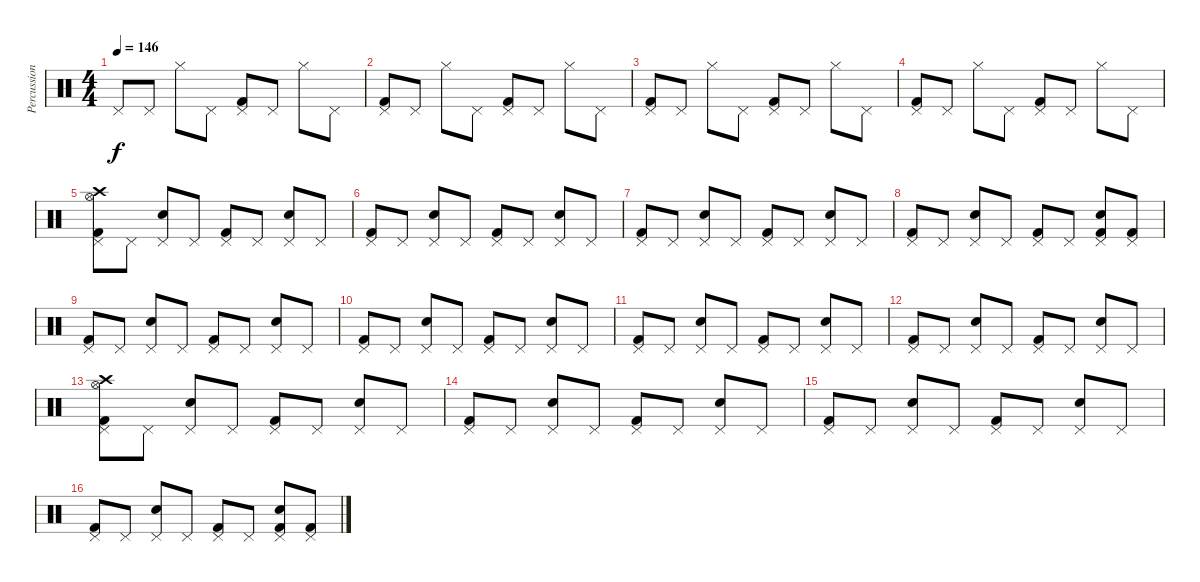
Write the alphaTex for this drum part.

\track ("Percussion" "Percussion") {instrument percussion}
\staff {score}
\articulation defaults
\ts (4 4)
\tempo 146
\clef neutral
\ks c "Pedal Hi-Hat (hit)".8{dy f} "Pedal Hi-Hat (hit)".8 "Hi-Hat (closed)".8 "Pedal Hi-Hat (hit)".8
("Pedal Hi-Hat (hit)" "Kick (hit) 2").8 "Pedal Hi-Hat (hit)".8 "Hi-Hat (closed)".8 "Pedal Hi-Hat (hit)".8 |
("Pedal Hi-Hat (hit)" "Kick (hit) 2").8 "Pedal Hi-Hat (hit)".8 "Hi-Hat (closed)".8 "Pedal Hi-Hat (hit)".8 ("Pedal Hi-Hat (hit)" "Kick (hit) 2").8 "Pedal Hi-Hat (hit)".8 "Hi-Hat (closed)".8 "Pedal Hi-Hat (hit)".8 |
("Pedal Hi-Hat (hit)" "Kick (hit) 2").8 "Pedal Hi-Hat (hit)".8 "Hi-Hat (closed)".8 "Pedal Hi-Hat (hit)".8 ("Pedal Hi-Hat (hit)" "Kick (hit) 2").8 "Pedal Hi-Hat (hit)".8 "Hi-Hat (closed)".8 "Pedal Hi-Hat (hit)".8 |
("Pedal Hi-Hat (hit)" "Kick (hit) 2").8 "Pedal Hi-Hat (hit)".8 "Hi-Hat (closed)".8 "Pedal Hi-Hat (hit)".8 ("Pedal Hi-Hat (hit)" "Kick (hit) 2").8 "Pedal Hi-Hat (hit)".8 "Hi-Hat (closed)".8 "Pedal Hi-Hat (hit)".8 |
("Kick (hit) 2" "Pedal Hi-Hat (hit)" "Crash high (hit)" "Hi-Hat (open)").8 "Pedal Hi-Hat (hit)".8 ("Electric Snare (hit)" "Pedal Hi-Hat (hit)").8 "Pedal Hi-Hat (hit)".8 ("Kick (hit) 2" "Pedal Hi-Hat (hit)").8 "Pedal Hi-Hat (hit)".8 ("Electric Snare (hit)" "Pedal Hi-Hat (hit)").8 "Pedal Hi-Hat (hit)".8 |
("Kick (hit) 2" "Pedal Hi-Hat (hit)").8 "Pedal Hi-Hat (hit)".8 ("Electric Snare (hit)" "Pedal Hi-Hat (hit)").8 "Pedal Hi-Hat (hit)".8 ("Kick (hit) 2" "Pedal Hi-Hat (hit)").8 "Pedal Hi-Hat (hit)".8 ("Electric Snare (hit)" "Pedal Hi-Hat (hit)").8 "Pedal Hi-Hat (hit)".8 |
("Kick (hit) 2" "Pedal Hi-Hat (hit)").8 "Pedal Hi-Hat (hit)".8 ("Electric Snare (hit)" "Pedal Hi-Hat (hit)").8 "Pedal Hi-Hat (hit)".8 ("Kick (hit) 2" "Pedal Hi-Hat (hit)").8 "Pedal Hi-Hat (hit)".8 ("Electric Snare (hit)" "Pedal Hi-Hat (hit)").8 "Pedal Hi-Hat (hit)".8 |
("Kick (hit) 2" "Pedal Hi-Hat (hit)").8 "Pedal Hi-Hat (hit)".8 ("Electric Snare (hit)" "Pedal Hi-Hat (hit)").8 "Pedal Hi-Hat (hit)".8 ("Kick (hit) 2" "Pedal Hi-Hat (hit)").8 "Pedal Hi-Hat (hit)".8 ("Electric Snare (hit)" "Pedal Hi-Hat (hit)" "Kick (hit) 2").8 ("Pedal Hi-Hat (hit)" "Kick (hit) 2").8 |
("Kick (hit) 2" "Pedal Hi-Hat (hit)").8 "Pedal Hi-Hat (hit)".8 ("Electric Snare (hit)" "Pedal Hi-Hat (hit)").8 "Pedal Hi-Hat (hit)".8 ("Kick (hit) 2" "Pedal Hi-Hat (hit)").8 "Pedal Hi-Hat (hit)".8 ("Electric Snare (hit)" "Pedal Hi-Hat (hit)").8 "Pedal Hi-Hat (hit)".8 |
("Kick (hit) 2" "Pedal Hi-Hat (hit)").8 "Pedal Hi-Hat (hit)".8 ("Electric Snare (hit)" "Pedal Hi-Hat (hit)").8 "Pedal Hi-Hat (hit)".8 ("Kick (hit) 2" "Pedal Hi-Hat (hit)").8 "Pedal Hi-Hat (hit)".8 ("Electric Snare (hit)" "Pedal Hi-Hat (hit)").8 "Pedal Hi-Hat (hit)".8 |
("Kick (hit) 2" "Pedal Hi-Hat (hit)").8 "Pedal Hi-Hat (hit)".8 ("Electric Snare (hit)" "Pedal Hi-Hat (hit)").8 "Pedal Hi-Hat (hit)".8 ("Kick (hit) 2" "Pedal Hi-Hat (hit)").8 "Pedal Hi-Hat (hit)".8 ("Electric Snare (hit)" "Pedal Hi-Hat (hit)").8 "Pedal Hi-Hat (hit)".8 |
("Kick (hit) 2" "Pedal Hi-Hat (hit)").8 "Pedal Hi-Hat (hit)".8 ("Electric Snare (hit)" "Pedal Hi-Hat (hit)").8 "Pedal Hi-Hat (hit)".8 ("Kick (hit) 2" "Pedal Hi-Hat (hit)").8 "Pedal Hi-Hat (hit)".8 ("Electric Snare (hit)" "Pedal Hi-Hat (hit)").8 "Pedal Hi-Hat (hit)".8 |
("Kick (hit) 2" "Pedal Hi-Hat (hit)" "Crash high (hit)" "Hi-Hat (open)").8 "Pedal Hi-Hat (hit)".8 ("Electric Snare (hit)" "Pedal Hi-Hat (hit)").8 "Pedal Hi-Hat (hit)".8 ("Kick (hit) 2" "Pedal Hi-Hat (hit)").8 "Pedal Hi-Hat (hit)".8 ("Electric Snare (hit)" "Pedal Hi-Hat (hit)").8 "Pedal Hi-Hat (hit)".8 |
("Kick (hit) 2" "Pedal Hi-Hat (hit)").8 "Pedal Hi-Hat (hit)".8 ("Electric Snare (hit)" "Pedal Hi-Hat (hit)").8 "Pedal Hi-Hat (hit)".8 ("Kick (hit) 2" "Pedal Hi-Hat (hit)").8 "Pedal Hi-Hat (hit)".8 ("Electric Snare (hit)" "Pedal Hi-Hat (hit)").8 "Pedal Hi-Hat (hit)".8 |
("Kick (hit) 2" "Pedal Hi-Hat (hit)").8 "Pedal Hi-Hat (hit)".8 ("Electric Snare (hit)" "Pedal Hi-Hat (hit)").8 "Pedal Hi-Hat (hit)".8 ("Kick (hit) 2" "Pedal Hi-Hat (hit)").8 "Pedal Hi-Hat (hit)".8 ("Electric Snare (hit)" "Pedal Hi-Hat (hit)").8 "Pedal Hi-Hat (hit)".8 |
("Kick (hit) 2" "Pedal Hi-Hat (hit)").8 "Pedal Hi-Hat (hit)".8 ("Electric Snare (hit)" "Pedal Hi-Hat (hit)").8 "Pedal Hi-Hat (hit)".8 ("Kick (hit) 2" "Pedal Hi-Hat (hit)").8 "Pedal Hi-Hat (hit)".8 ("Electric Snare (hit)" "Pedal Hi-Hat (hit)" "Kick (hit) 2").8 ("Pedal Hi-Hat (hit)" "Kick (hit) 2").8
